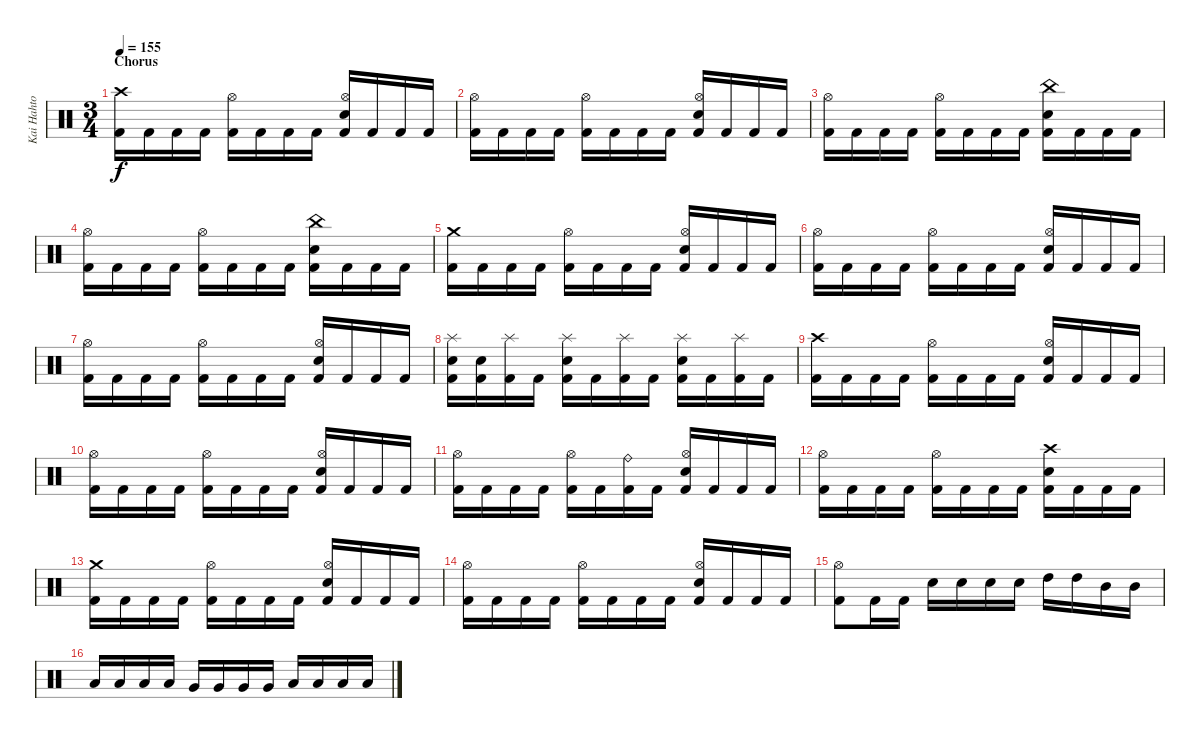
\track ("Kai Hahto" "Kai Hahto") {instrument percussion}
\staff {score}
\articulation defaults
\ts (3 4)
\section ("" "Chorus")
\tempo 155
\clef neutral
\ks c
("Crash high (hit)" "Kick (hit) 2").16{dy f} "Kick (hit) 2".16 "Kick (hit) 2".16 "Kick (hit) 2".16 ("Hi-Hat (open)" "Kick (hit) 2").16 "Kick (hit) 2".16 "Kick (hit) 2".16 "Kick (hit) 2".16 ("Hi-Hat (open)" "Electric Snare (hit)" "Kick (hit) 2").16 "Kick (hit) 2".16 "Kick (hit) 2".16 "Kick (hit) 2".16 |
("Hi-Hat (open)" "Kick (hit) 2").16 "Kick (hit) 2".16 "Kick (hit) 2".16 "Kick (hit) 2".16 ("Hi-Hat (open)" "Kick (hit) 2").16 "Kick (hit) 2".16 "Kick (hit) 2".16 "Kick (hit) 2".16 ("Hi-Hat (open)" "Electric Snare (hit)" "Kick (hit) 2").16 "Kick (hit) 2".16 "Kick (hit) 2".16 "Kick (hit) 2".16 |
("Hi-Hat (open)" "Kick (hit) 2").16 "Kick (hit) 2".16 "Kick (hit) 2".16 "Kick (hit) 2".16 ("Hi-Hat (open)" "Kick (hit) 2").16 "Kick (hit) 2".16 "Kick (hit) 2".16 "Kick (hit) 2".16 ("China (hit)" "Electric Snare (hit)" "Kick (hit) 2").16 "Kick (hit) 2".16 "Kick (hit) 2".16 "Kick (hit) 2".16 |
("Hi-Hat (open)" "Kick (hit) 2").16 "Kick (hit) 2".16 "Kick (hit) 2".16 "Kick (hit) 2".16 ("Hi-Hat (open)" "Kick (hit) 2").16 "Kick (hit) 2".16 "Kick (hit) 2".16 "Kick (hit) 2".16 ("China (hit)" "Electric Snare (hit)" "Kick (hit) 2").16 "Kick (hit) 2".16 "Kick (hit) 2".16 "Kick (hit) 2".16 |
("Crash medium (hit)" "Kick (hit) 2").16 "Kick (hit) 2".16 "Kick (hit) 2".16 "Kick (hit) 2".16 ("Hi-Hat (open)" "Kick (hit) 2").16 "Kick (hit) 2".16 "Kick (hit) 2".16 "Kick (hit) 2".16 ("Hi-Hat (open)" "Electric Snare (hit)" "Kick (hit) 2").16 "Kick (hit) 2".16 "Kick (hit) 2".16 "Kick (hit) 2".16 |
("Hi-Hat (open)" "Kick (hit) 2").16 "Kick (hit) 2".16 "Kick (hit) 2".16 "Kick (hit) 2".16 ("Hi-Hat (open)" "Kick (hit) 2").16 "Kick (hit) 2".16 "Kick (hit) 2".16 "Kick (hit) 2".16 ("Hi-Hat (open)" "Electric Snare (hit)" "Kick (hit) 2").16 "Kick (hit) 2".16 "Kick (hit) 2".16 "Kick (hit) 2".16 |
("Hi-Hat (open)" "Kick (hit) 2").16 "Kick (hit) 2".16 "Kick (hit) 2".16 "Kick (hit) 2".16 ("Hi-Hat (open)" "Kick (hit) 2").16 "Kick (hit) 2".16 "Kick (hit) 2".16 "Kick (hit) 2".16 ("Hi-Hat (open)" "Electric Snare (hit)" "Kick (hit) 2").16 "Kick (hit) 2".16 "Kick (hit) 2".16 "Kick (hit) 2".16 |
("Splash (hit)" "Electric Snare (hit)" "Kick (hit) 2").16 ("Electric Snare (hit)" "Kick (hit) 2").16 ("Splash (hit)" "Kick (hit) 2").16 "Kick (hit) 2".16 ("Splash (hit)" "Electric Snare (hit)" "Kick (hit) 2").16 "Kick (hit) 2".16 ("Splash (hit)" "Kick (hit) 2").16 "Kick (hit) 2".16 ("Splash (hit)" "Electric Snare (hit)" "Kick (hit) 2").16 "Kick (hit) 2".16 ("Splash (hit)" "Kick (hit) 2").16 "Kick (hit) 2".16 |
("Crash high (hit)" "Kick (hit) 2").16 "Kick (hit) 2".16 "Kick (hit) 2".16 "Kick (hit) 2".16 ("Hi-Hat (open)" "Kick (hit) 2").16 "Kick (hit) 2".16 "Kick (hit) 2".16 "Kick (hit) 2".16 ("Hi-Hat (open)" "Electric Snare (hit)" "Kick (hit) 2").16 "Kick (hit) 2".16 "Kick (hit) 2".16 "Kick (hit) 2".16 |
("Hi-Hat (open)" "Kick (hit) 2").16 "Kick (hit) 2".16 "Kick (hit) 2".16 "Kick (hit) 2".16 ("Hi-Hat (open)" "Kick (hit) 2").16 "Kick (hit) 2".16 "Kick (hit) 2".16 "Kick (hit) 2".16 ("Hi-Hat (open)" "Electric Snare (hit)" "Kick (hit) 2").16 "Kick (hit) 2".16 "Kick (hit) 2".16 "Kick (hit) 2".16 |
("Hi-Hat (open)" "Kick (hit) 2").16 "Kick (hit) 2".16 "Kick (hit) 2".16 "Kick (hit) 2".16 ("Hi-Hat (open)" "Kick (hit) 2").16 "Kick (hit) 2".16 ("Ride (bell)" "Kick (hit) 2").16 "Kick (hit) 2".16 ("Hi-Hat (open)" "Electric Snare (hit)" "Kick (hit) 2").16 "Kick (hit) 2".16 "Kick (hit) 2".16 "Kick (hit) 2".16 |
("Hi-Hat (open)" "Kick (hit) 2").16 "Kick (hit) 2".16 "Kick (hit) 2".16 "Kick (hit) 2".16 ("Hi-Hat (open)" "Kick (hit) 2").16 "Kick (hit) 2".16 "Kick (hit) 2".16 "Kick (hit) 2".16 ("Crash high (hit)" "Electric Snare (hit)" "Kick (hit) 2").16 "Kick (hit) 2".16 "Kick (hit) 2".16 "Kick (hit) 2".16 |
("Crash medium (hit)" "Kick (hit) 2").16 "Kick (hit) 2".16 "Kick (hit) 2".16 "Kick (hit) 2".16 ("Hi-Hat (open)" "Kick (hit) 2").16 "Kick (hit) 2".16 "Kick (hit) 2".16 "Kick (hit) 2".16 ("Hi-Hat (open)" "Electric Snare (hit)" "Kick (hit) 2").16 "Kick (hit) 2".16 "Kick (hit) 2".16 "Kick (hit) 2".16 |
("Hi-Hat (open)" "Kick (hit) 2").16 "Kick (hit) 2".16 "Kick (hit) 2".16 "Kick (hit) 2".16 ("Hi-Hat (open)" "Kick (hit) 2").16 "Kick (hit) 2".16 "Kick (hit) 2".16 "Kick (hit) 2".16 ("Hi-Hat (open)" "Electric Snare (hit)" "Kick (hit) 2").16 "Kick (hit) 2".16 "Kick (hit) 2".16 "Kick (hit) 2".16 |
("Hi-Hat (open)" "Kick (hit) 2").8 "Kick (hit) 2".16 "Kick (hit) 2".16 "Electric Snare (hit)".16 "Electric Snare (hit)".16 "Electric Snare (hit)".16 "Electric Snare (hit)".16 "High Tom (hit)".16 "High Tom (hit)".16 "Mid Tom (hit)".16 "Mid Tom (hit)".16 |
"Low Tom (hit)".16 "Low Tom (hit)".16 "Low Tom (hit)".16 "Low Tom (hit)".16 "Very Low Tom (hit)".16 "Very Low Tom (hit)".16 "Very Low Tom (hit)".16 "Very Low Tom (hit)".16 "Low Floor Tom (hit)".16 "Low Floor Tom (hit)".16 "Low Floor Tom (hit)".16 "Low Floor Tom (hit)".16
